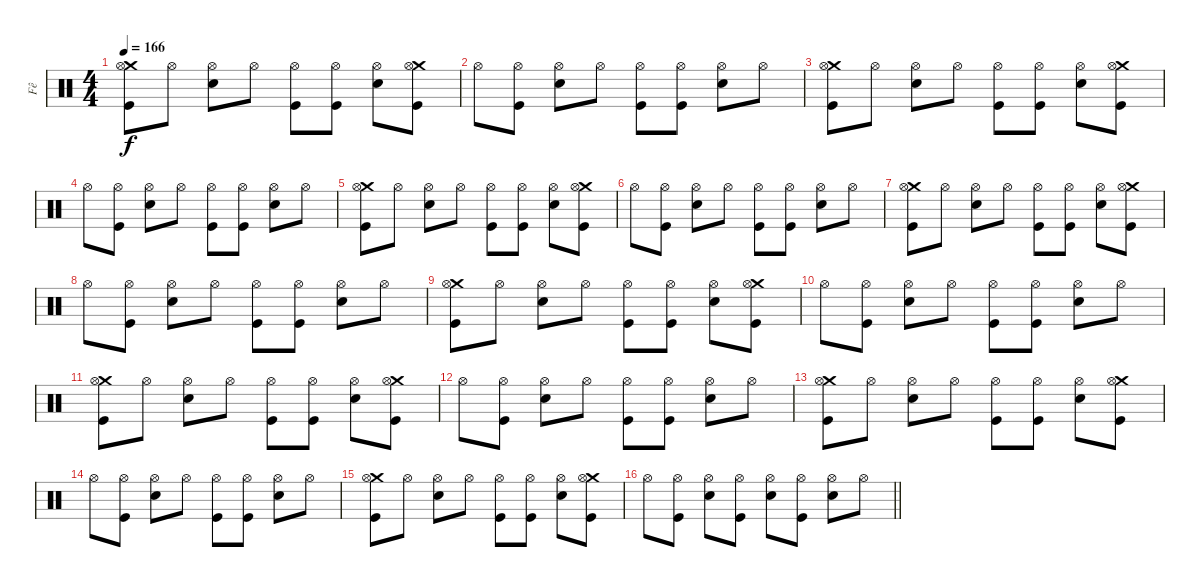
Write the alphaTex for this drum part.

\track ("Fê" "Fê") {instrument percussion}
\staff {score}
\articulation defaults
\ts (4 4)
\tempo 166
\clef neutral
\ks c
("Crash medium (hit)" "Hi-Hat (open)" "Kick (hit)").8{dy f} "Hi-Hat (open)".8 ("Hi-Hat (open)" "Electric Snare (hit)").8 "Hi-Hat (open)".8 ("Hi-Hat (open)" "Kick (hit)").8 ("Hi-Hat (open)" "Kick (hit)").8 ("Hi-Hat (open)" "Electric Snare (hit)").8 ("Crash medium (hit)" "Hi-Hat (open)" "Kick (hit)").8 |
"Hi-Hat (open)".8 ("Hi-Hat (open)" "Kick (hit)").8 ("Hi-Hat (open)" "Electric Snare (hit)").8 "Hi-Hat (open)".8 ("Hi-Hat (open)" "Kick (hit)").8 ("Hi-Hat (open)" "Kick (hit)").8 ("Hi-Hat (open)" "Electric Snare (hit)").8 "Hi-Hat (open)".8 |
("Crash medium (hit)" "Hi-Hat (open)" "Kick (hit)").8 "Hi-Hat (open)".8 ("Hi-Hat (open)" "Electric Snare (hit)").8 "Hi-Hat (open)".8 ("Hi-Hat (open)" "Kick (hit)").8 ("Hi-Hat (open)" "Kick (hit)").8 ("Hi-Hat (open)" "Electric Snare (hit)").8 ("Crash medium (hit)" "Hi-Hat (open)" "Kick (hit)").8 |
"Hi-Hat (open)".8 ("Hi-Hat (open)" "Kick (hit)").8 ("Hi-Hat (open)" "Electric Snare (hit)").8 "Hi-Hat (open)".8 ("Hi-Hat (open)" "Kick (hit)").8 ("Hi-Hat (open)" "Kick (hit)").8 ("Hi-Hat (open)" "Electric Snare (hit)").8 "Hi-Hat (open)".8 |
("Crash medium (hit)" "Hi-Hat (open)" "Kick (hit)").8 "Hi-Hat (open)".8 ("Hi-Hat (open)" "Electric Snare (hit)").8 "Hi-Hat (open)".8 ("Hi-Hat (open)" "Kick (hit)").8 ("Hi-Hat (open)" "Kick (hit)").8 ("Hi-Hat (open)" "Electric Snare (hit)").8 ("Crash medium (hit)" "Hi-Hat (open)" "Kick (hit)").8 |
"Hi-Hat (open)".8 ("Hi-Hat (open)" "Kick (hit)").8 ("Hi-Hat (open)" "Electric Snare (hit)").8 "Hi-Hat (open)".8 ("Hi-Hat (open)" "Kick (hit)").8 ("Hi-Hat (open)" "Kick (hit)").8 ("Hi-Hat (open)" "Electric Snare (hit)").8 "Hi-Hat (open)".8 |
("Crash medium (hit)" "Hi-Hat (open)" "Kick (hit)").8 "Hi-Hat (open)".8 ("Hi-Hat (open)" "Electric Snare (hit)").8 "Hi-Hat (open)".8 ("Hi-Hat (open)" "Kick (hit)").8 ("Hi-Hat (open)" "Kick (hit)").8 ("Hi-Hat (open)" "Electric Snare (hit)").8 ("Crash medium (hit)" "Hi-Hat (open)" "Kick (hit)").8 |
"Hi-Hat (open)".8 ("Hi-Hat (open)" "Kick (hit)").8 ("Hi-Hat (open)" "Electric Snare (hit)").8 "Hi-Hat (open)".8 ("Hi-Hat (open)" "Kick (hit)").8 ("Hi-Hat (open)" "Kick (hit)").8 ("Hi-Hat (open)" "Electric Snare (hit)").8 "Hi-Hat (open)".8 |
("Crash medium (hit)" "Hi-Hat (open)" "Kick (hit)").8 "Hi-Hat (open)".8 ("Hi-Hat (open)" "Electric Snare (hit)").8 "Hi-Hat (open)".8 ("Hi-Hat (open)" "Kick (hit)").8 ("Hi-Hat (open)" "Kick (hit)").8 ("Hi-Hat (open)" "Electric Snare (hit)").8 ("Crash medium (hit)" "Hi-Hat (open)" "Kick (hit)").8 |
"Hi-Hat (open)".8 ("Hi-Hat (open)" "Kick (hit)").8 ("Hi-Hat (open)" "Electric Snare (hit)").8 "Hi-Hat (open)".8 ("Hi-Hat (open)" "Kick (hit)").8 ("Hi-Hat (open)" "Kick (hit)").8 ("Hi-Hat (open)" "Electric Snare (hit)").8 "Hi-Hat (open)".8 |
("Crash medium (hit)" "Hi-Hat (open)" "Kick (hit)").8 "Hi-Hat (open)".8 ("Hi-Hat (open)" "Electric Snare (hit)").8 "Hi-Hat (open)".8 ("Hi-Hat (open)" "Kick (hit)").8 ("Hi-Hat (open)" "Kick (hit)").8 ("Hi-Hat (open)" "Electric Snare (hit)").8 ("Crash medium (hit)" "Hi-Hat (open)" "Kick (hit)").8 |
"Hi-Hat (open)".8 ("Hi-Hat (open)" "Kick (hit)").8 ("Hi-Hat (open)" "Electric Snare (hit)").8 "Hi-Hat (open)".8 ("Hi-Hat (open)" "Kick (hit)").8 ("Hi-Hat (open)" "Kick (hit)").8 ("Hi-Hat (open)" "Electric Snare (hit)").8 "Hi-Hat (open)".8 |
("Crash medium (hit)" "Hi-Hat (open)" "Kick (hit)").8 "Hi-Hat (open)".8 ("Hi-Hat (open)" "Electric Snare (hit)").8 "Hi-Hat (open)".8 ("Hi-Hat (open)" "Kick (hit)").8 ("Hi-Hat (open)" "Kick (hit)").8 ("Hi-Hat (open)" "Electric Snare (hit)").8 ("Crash medium (hit)" "Hi-Hat (open)" "Kick (hit)").8 |
"Hi-Hat (open)".8 ("Hi-Hat (open)" "Kick (hit)").8 ("Hi-Hat (open)" "Electric Snare (hit)").8 "Hi-Hat (open)".8 ("Hi-Hat (open)" "Kick (hit)").8 ("Hi-Hat (open)" "Kick (hit)").8 ("Hi-Hat (open)" "Electric Snare (hit)").8 "Hi-Hat (open)".8 |
("Crash medium (hit)" "Hi-Hat (open)" "Kick (hit)").8 "Hi-Hat (open)".8 ("Hi-Hat (open)" "Electric Snare (hit)").8 "Hi-Hat (open)".8 ("Hi-Hat (open)" "Kick (hit)").8 ("Hi-Hat (open)" "Kick (hit)").8 ("Hi-Hat (open)" "Electric Snare (hit)").8 ("Crash medium (hit)" "Hi-Hat (open)" "Kick (hit)").8 |
\barLineRight lightlight "Hi-Hat (open)".8
("Hi-Hat (open)" "Kick (hit)").8 ("Hi-Hat (open)" "Electric Snare (hit)").8 ("Hi-Hat (open)" "Kick (hit)").8 ("Hi-Hat (open)" "Electric Snare (hit)").8 ("Hi-Hat (open)" "Kick (hit)").8 ("Hi-Hat (open)" "Electric Snare (hit)").8 "Hi-Hat (open)".8
